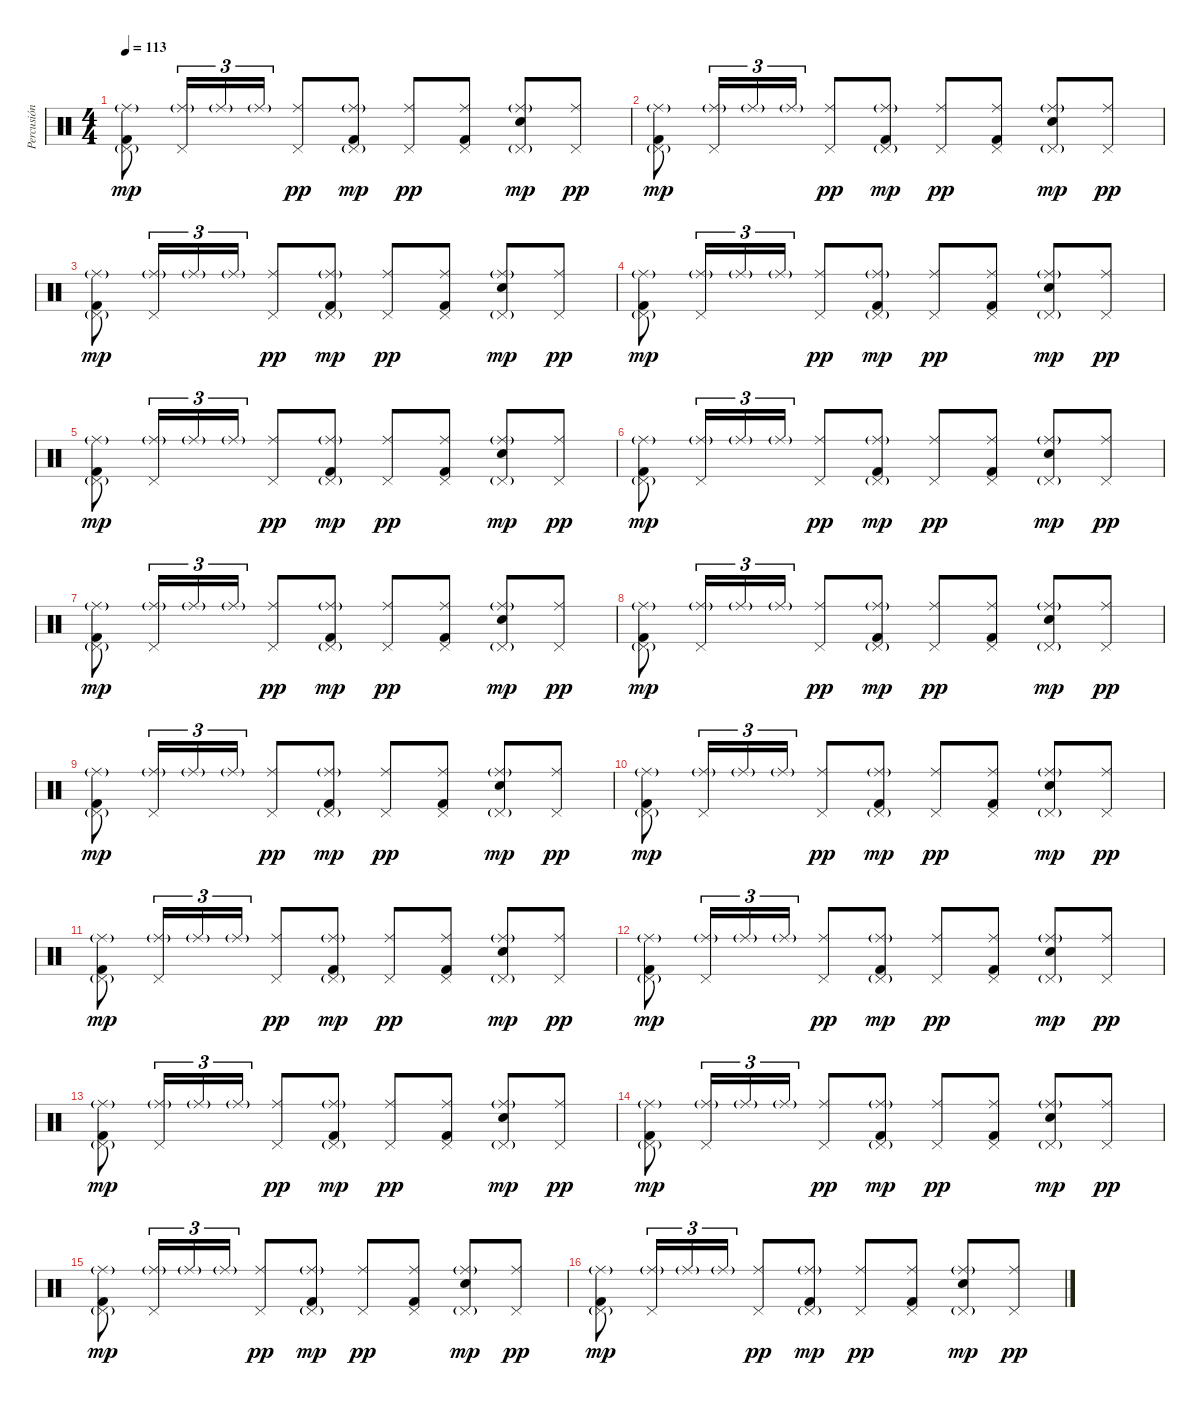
\track ("Percusión" "Percusión") {instrument percussion}
\staff {score}
\articulation defaults
\ts (4 4)
\tempo 113
\clef neutral
\ks c
("Kick (hit) 2" "Pedal Hi-Hat (hit)"{g} "Ride (middle)"{g}).8{dy mp} ("Pedal Hi-Hat (hit)" "Ride (middle)"{g}).16{tu (3 2)} "Ride (middle)"{g}.16{tu (3 2)} "Ride (middle)"{g}.16{tu (3 2)} ("Pedal Hi-Hat (hit)" "Ride (middle)").8{dy pp} ("Kick (hit) 2" "Pedal Hi-Hat (hit)"{g} "Ride (middle)"{g}).8{dy mp} ("Pedal Hi-Hat (hit)" "Ride (middle)").8{dy pp} ("Kick (hit) 2" "Pedal Hi-Hat (hit)" "Ride (middle)").8 ("Snare (hit) 2" "Pedal Hi-Hat (hit)"{g} "Ride (middle)"{g}).8{dy mp} ("Pedal Hi-Hat (hit)" "Ride (middle)").8{dy pp} |
("Kick (hit) 2" "Pedal Hi-Hat (hit)"{g} "Ride (middle)"{g}).8{dy mp} ("Pedal Hi-Hat (hit)" "Ride (middle)"{g}).16{tu (3 2)} "Ride (middle)"{g}.16{tu (3 2)} "Ride (middle)"{g}.16{tu (3 2)} ("Pedal Hi-Hat (hit)" "Ride (middle)").8{dy pp} ("Kick (hit) 2" "Pedal Hi-Hat (hit)"{g} "Ride (middle)"{g}).8{dy mp} ("Pedal Hi-Hat (hit)" "Ride (middle)").8{dy pp} ("Kick (hit) 2" "Pedal Hi-Hat (hit)" "Ride (middle)").8 ("Snare (hit) 2" "Pedal Hi-Hat (hit)"{g} "Ride (middle)"{g}).8{dy mp} ("Pedal Hi-Hat (hit)" "Ride (middle)").8{dy pp} |
("Kick (hit) 2" "Pedal Hi-Hat (hit)"{g} "Ride (middle)"{g}).8{dy mp} ("Pedal Hi-Hat (hit)" "Ride (middle)"{g}).16{tu (3 2)} "Ride (middle)"{g}.16{tu (3 2)} "Ride (middle)"{g}.16{tu (3 2)} ("Pedal Hi-Hat (hit)" "Ride (middle)").8{dy pp} ("Kick (hit) 2" "Pedal Hi-Hat (hit)"{g} "Ride (middle)"{g}).8{dy mp} ("Pedal Hi-Hat (hit)" "Ride (middle)").8{dy pp} ("Kick (hit) 2" "Pedal Hi-Hat (hit)" "Ride (middle)").8 ("Snare (hit) 2" "Pedal Hi-Hat (hit)"{g} "Ride (middle)"{g}).8{dy mp} ("Pedal Hi-Hat (hit)" "Ride (middle)").8{dy pp} |
("Kick (hit) 2" "Pedal Hi-Hat (hit)"{g} "Ride (middle)"{g}).8{dy mp} ("Pedal Hi-Hat (hit)" "Ride (middle)"{g}).16{tu (3 2)} "Ride (middle)"{g}.16{tu (3 2)} "Ride (middle)"{g}.16{tu (3 2)} ("Pedal Hi-Hat (hit)" "Ride (middle)").8{dy pp} ("Kick (hit) 2" "Pedal Hi-Hat (hit)"{g} "Ride (middle)"{g}).8{dy mp} ("Pedal Hi-Hat (hit)" "Ride (middle)").8{dy pp} ("Kick (hit) 2" "Pedal Hi-Hat (hit)" "Ride (middle)").8 ("Snare (hit) 2" "Pedal Hi-Hat (hit)"{g} "Ride (middle)"{g}).8{dy mp} ("Pedal Hi-Hat (hit)" "Ride (middle)").8{dy pp} |
("Kick (hit) 2" "Pedal Hi-Hat (hit)"{g} "Ride (middle)"{g}).8{dy mp} ("Pedal Hi-Hat (hit)" "Ride (middle)"{g}).16{tu (3 2)} "Ride (middle)"{g}.16{tu (3 2)} "Ride (middle)"{g}.16{tu (3 2)} ("Pedal Hi-Hat (hit)" "Ride (middle)").8{dy pp} ("Kick (hit) 2" "Pedal Hi-Hat (hit)"{g} "Ride (middle)"{g}).8{dy mp} ("Pedal Hi-Hat (hit)" "Ride (middle)").8{dy pp} ("Kick (hit) 2" "Pedal Hi-Hat (hit)" "Ride (middle)").8 ("Snare (hit) 2" "Pedal Hi-Hat (hit)"{g} "Ride (middle)"{g}).8{dy mp} ("Pedal Hi-Hat (hit)" "Ride (middle)").8{dy pp} |
("Kick (hit) 2" "Pedal Hi-Hat (hit)"{g} "Ride (middle)"{g}).8{dy mp} ("Pedal Hi-Hat (hit)" "Ride (middle)"{g}).16{tu (3 2)} "Ride (middle)"{g}.16{tu (3 2)} "Ride (middle)"{g}.16{tu (3 2)} ("Pedal Hi-Hat (hit)" "Ride (middle)").8{dy pp} ("Kick (hit) 2" "Pedal Hi-Hat (hit)"{g} "Ride (middle)"{g}).8{dy mp} ("Pedal Hi-Hat (hit)" "Ride (middle)").8{dy pp} ("Kick (hit) 2" "Pedal Hi-Hat (hit)" "Ride (middle)").8 ("Snare (hit) 2" "Pedal Hi-Hat (hit)"{g} "Ride (middle)"{g}).8{dy mp} ("Pedal Hi-Hat (hit)" "Ride (middle)").8{dy pp} |
("Kick (hit) 2" "Pedal Hi-Hat (hit)"{g} "Ride (middle)"{g}).8{dy mp} ("Pedal Hi-Hat (hit)" "Ride (middle)"{g}).16{tu (3 2)} "Ride (middle)"{g}.16{tu (3 2)} "Ride (middle)"{g}.16{tu (3 2)} ("Pedal Hi-Hat (hit)" "Ride (middle)").8{dy pp} ("Kick (hit) 2" "Pedal Hi-Hat (hit)"{g} "Ride (middle)"{g}).8{dy mp} ("Pedal Hi-Hat (hit)" "Ride (middle)").8{dy pp} ("Kick (hit) 2" "Pedal Hi-Hat (hit)" "Ride (middle)").8 ("Snare (hit) 2" "Pedal Hi-Hat (hit)"{g} "Ride (middle)"{g}).8{dy mp} ("Pedal Hi-Hat (hit)" "Ride (middle)").8{dy pp} |
("Kick (hit) 2" "Pedal Hi-Hat (hit)"{g} "Ride (middle)"{g}).8{dy mp} ("Pedal Hi-Hat (hit)" "Ride (middle)"{g}).16{tu (3 2)} "Ride (middle)"{g}.16{tu (3 2)} "Ride (middle)"{g}.16{tu (3 2)} ("Pedal Hi-Hat (hit)" "Ride (middle)").8{dy pp} ("Kick (hit) 2" "Pedal Hi-Hat (hit)"{g} "Ride (middle)"{g}).8{dy mp} ("Pedal Hi-Hat (hit)" "Ride (middle)").8{dy pp} ("Kick (hit) 2" "Pedal Hi-Hat (hit)" "Ride (middle)").8 ("Snare (hit) 2" "Pedal Hi-Hat (hit)"{g} "Ride (middle)"{g}).8{dy mp} ("Pedal Hi-Hat (hit)" "Ride (middle)").8{dy pp} |
("Kick (hit) 2" "Pedal Hi-Hat (hit)"{g} "Ride (middle)"{g}).8{dy mp} ("Pedal Hi-Hat (hit)" "Ride (middle)"{g}).16{tu (3 2)} "Ride (middle)"{g}.16{tu (3 2)} "Ride (middle)"{g}.16{tu (3 2)} ("Pedal Hi-Hat (hit)" "Ride (middle)").8{dy pp} ("Kick (hit) 2" "Pedal Hi-Hat (hit)"{g} "Ride (middle)"{g}).8{dy mp} ("Pedal Hi-Hat (hit)" "Ride (middle)").8{dy pp} ("Kick (hit) 2" "Pedal Hi-Hat (hit)" "Ride (middle)").8 ("Snare (hit) 2" "Pedal Hi-Hat (hit)"{g} "Ride (middle)"{g}).8{dy mp} ("Pedal Hi-Hat (hit)" "Ride (middle)").8{dy pp} |
("Kick (hit) 2" "Pedal Hi-Hat (hit)"{g} "Ride (middle)"{g}).8{dy mp} ("Pedal Hi-Hat (hit)" "Ride (middle)"{g}).16{tu (3 2)} "Ride (middle)"{g}.16{tu (3 2)} "Ride (middle)"{g}.16{tu (3 2)} ("Pedal Hi-Hat (hit)" "Ride (middle)").8{dy pp} ("Kick (hit) 2" "Pedal Hi-Hat (hit)"{g} "Ride (middle)"{g}).8{dy mp} ("Pedal Hi-Hat (hit)" "Ride (middle)").8{dy pp} ("Kick (hit) 2" "Pedal Hi-Hat (hit)" "Ride (middle)").8 ("Snare (hit) 2" "Pedal Hi-Hat (hit)"{g} "Ride (middle)"{g}).8{dy mp} ("Pedal Hi-Hat (hit)" "Ride (middle)").8{dy pp} |
("Kick (hit) 2" "Pedal Hi-Hat (hit)"{g} "Ride (middle)"{g}).8{dy mp} ("Pedal Hi-Hat (hit)" "Ride (middle)"{g}).16{tu (3 2)} "Ride (middle)"{g}.16{tu (3 2)} "Ride (middle)"{g}.16{tu (3 2)} ("Pedal Hi-Hat (hit)" "Ride (middle)").8{dy pp} ("Kick (hit) 2" "Pedal Hi-Hat (hit)"{g} "Ride (middle)"{g}).8{dy mp} ("Pedal Hi-Hat (hit)" "Ride (middle)").8{dy pp} ("Kick (hit) 2" "Pedal Hi-Hat (hit)" "Ride (middle)").8 ("Snare (hit) 2" "Pedal Hi-Hat (hit)"{g} "Ride (middle)"{g}).8{dy mp} ("Pedal Hi-Hat (hit)" "Ride (middle)").8{dy pp} |
("Kick (hit) 2" "Pedal Hi-Hat (hit)"{g} "Ride (middle)"{g}).8{dy mp} ("Pedal Hi-Hat (hit)" "Ride (middle)"{g}).16{tu (3 2)} "Ride (middle)"{g}.16{tu (3 2)} "Ride (middle)"{g}.16{tu (3 2)} ("Pedal Hi-Hat (hit)" "Ride (middle)").8{dy pp} ("Kick (hit) 2" "Pedal Hi-Hat (hit)"{g} "Ride (middle)"{g}).8{dy mp} ("Pedal Hi-Hat (hit)" "Ride (middle)").8{dy pp} ("Kick (hit) 2" "Pedal Hi-Hat (hit)" "Ride (middle)").8 ("Snare (hit) 2" "Pedal Hi-Hat (hit)"{g} "Ride (middle)"{g}).8{dy mp} ("Pedal Hi-Hat (hit)" "Ride (middle)").8{dy pp} |
("Kick (hit) 2" "Pedal Hi-Hat (hit)"{g} "Ride (middle)"{g}).8{dy mp} ("Pedal Hi-Hat (hit)" "Ride (middle)"{g}).16{tu (3 2)} "Ride (middle)"{g}.16{tu (3 2)} "Ride (middle)"{g}.16{tu (3 2)} ("Pedal Hi-Hat (hit)" "Ride (middle)").8{dy pp} ("Kick (hit) 2" "Pedal Hi-Hat (hit)"{g} "Ride (middle)"{g}).8{dy mp} ("Pedal Hi-Hat (hit)" "Ride (middle)").8{dy pp} ("Kick (hit) 2" "Pedal Hi-Hat (hit)" "Ride (middle)").8 ("Snare (hit) 2" "Pedal Hi-Hat (hit)"{g} "Ride (middle)"{g}).8{dy mp} ("Pedal Hi-Hat (hit)" "Ride (middle)").8{dy pp} |
("Kick (hit) 2" "Pedal Hi-Hat (hit)"{g} "Ride (middle)"{g}).8{dy mp} ("Pedal Hi-Hat (hit)" "Ride (middle)"{g}).16{tu (3 2)} "Ride (middle)"{g}.16{tu (3 2)} "Ride (middle)"{g}.16{tu (3 2)} ("Pedal Hi-Hat (hit)" "Ride (middle)").8{dy pp} ("Kick (hit) 2" "Pedal Hi-Hat (hit)"{g} "Ride (middle)"{g}).8{dy mp} ("Pedal Hi-Hat (hit)" "Ride (middle)").8{dy pp} ("Kick (hit) 2" "Pedal Hi-Hat (hit)" "Ride (middle)").8 ("Snare (hit) 2" "Pedal Hi-Hat (hit)"{g} "Ride (middle)"{g}).8{dy mp} ("Pedal Hi-Hat (hit)" "Ride (middle)").8{dy pp} |
("Kick (hit) 2" "Pedal Hi-Hat (hit)"{g} "Ride (middle)"{g}).8{dy mp} ("Pedal Hi-Hat (hit)" "Ride (middle)"{g}).16{tu (3 2)} "Ride (middle)"{g}.16{tu (3 2)} "Ride (middle)"{g}.16{tu (3 2)} ("Pedal Hi-Hat (hit)" "Ride (middle)").8{dy pp} ("Kick (hit) 2" "Pedal Hi-Hat (hit)"{g} "Ride (middle)"{g}).8{dy mp} ("Pedal Hi-Hat (hit)" "Ride (middle)").8{dy pp} ("Kick (hit) 2" "Pedal Hi-Hat (hit)" "Ride (middle)").8 ("Snare (hit) 2" "Pedal Hi-Hat (hit)"{g} "Ride (middle)"{g}).8{dy mp} ("Pedal Hi-Hat (hit)" "Ride (middle)").8{dy pp} |
("Kick (hit) 2" "Pedal Hi-Hat (hit)"{g} "Ride (middle)"{g}).8{dy mp} ("Pedal Hi-Hat (hit)" "Ride (middle)"{g}).16{tu (3 2)} "Ride (middle)"{g}.16{tu (3 2)} "Ride (middle)"{g}.16{tu (3 2)} ("Pedal Hi-Hat (hit)" "Ride (middle)").8{dy pp} ("Kick (hit) 2" "Pedal Hi-Hat (hit)"{g} "Ride (middle)"{g}).8{dy mp} ("Pedal Hi-Hat (hit)" "Ride (middle)").8{dy pp} ("Kick (hit) 2" "Pedal Hi-Hat (hit)" "Ride (middle)").8 ("Snare (hit) 2" "Pedal Hi-Hat (hit)"{g} "Ride (middle)"{g}).8{dy mp} ("Pedal Hi-Hat (hit)" "Ride (middle)").8{dy pp}
